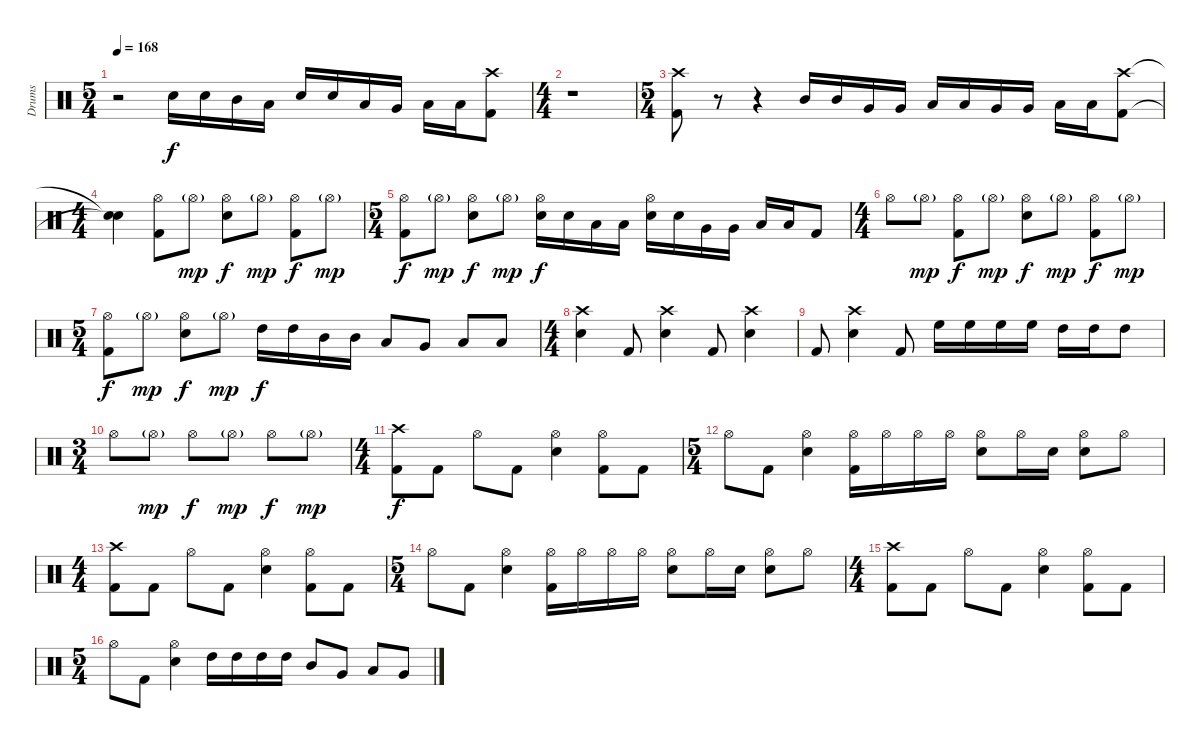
\track ("Drums" "Drums") {instrument percussion}
\staff {score}
\articulation defaults
\ts (5 4)
\tempo 168
\clef neutral
\ks c
r.2{dy f} "Electric Snare (hit)".16 "Electric Snare (hit)".16 "Mid Tom (hit)".16 "Low Tom (hit)".16 "Electric Snare (hit)".16 "Electric Snare (hit)".16 "Low Tom (hit)".16 "Very Low Tom (hit)".16 "Low Floor Tom (hit)".16 "Low Floor Tom (hit)".16 ("Crash high (hit)" "Kick (hit) 2").8 |
\ts (4 4)
r.1 |
\ts (5 4)
("Crash high (hit)" "Kick (hit) 2").8 r.8 r.4 "Mid Tom (hit)".16 "Mid Tom (hit)".16 "Very Low Tom (hit)".16 "Very Low Tom (hit)".16 "Low Tom (hit)".16 "Low Tom (hit)".16 "Very Low Tom (hit)".16 "Very Low Tom (hit)".16 "Low Floor Tom (hit)".16 "Low Floor Tom (hit)".16 ("Crash high (hit)" "Kick (hit) 2").8 |
\ts (4 4)
("Snare (hit)"{t} "Snare (hit)"{t}).4 ("Hi-Hat (open)" "Kick (hit) 2").8 "Hi-Hat (open)"{g}.8{dy mp} ("Hi-Hat (open)" "Electric Snare (hit)").8{dy f} "Hi-Hat (open)"{g}.8{dy mp} ("Hi-Hat (open)" "Kick (hit) 2").8{dy f} "Hi-Hat (open)"{g}.8{dy mp} |
\ts (5 4)
("Hi-Hat (open)" "Kick (hit) 2").8{dy f} "Hi-Hat (open)"{g}.8{dy mp} ("Hi-Hat (open)" "Electric Snare (hit)").8{dy f} "Hi-Hat (open)"{g}.8{dy mp} ("Hi-Hat (open)" "Electric Snare (hit)").16{dy f} "Electric Snare (hit)".16 "Low Tom (hit)".16 "Low Tom (hit)".16 ("Hi-Hat (open)" "Electric Snare (hit)").16 "Electric Snare (hit)".16 "Very Low Tom (hit)".16 "Very Low Tom (hit)".16 "Low Floor Tom (hit)".16 "Low Floor Tom (hit)".16 "Kick (hit) 2".8 |
\ts (4 4)
"Hi-Hat (open)".8 "Hi-Hat (open)"{g}.8{dy mp} ("Hi-Hat (open)" "Kick (hit) 2").8{dy f} "Hi-Hat (open)"{g}.8{dy mp} ("Hi-Hat (open)" "Electric Snare (hit)").8{dy f} "Hi-Hat (open)"{g}.8{dy mp} ("Hi-Hat (open)" "Kick (hit) 2").8{dy f} "Hi-Hat (open)"{g}.8{dy mp} |
\ts (5 4)
("Hi-Hat (open)" "Kick (hit) 2").8{dy f} "Hi-Hat (open)"{g}.8{dy mp} ("Hi-Hat (open)" "Electric Snare (hit)").8{dy f} "Hi-Hat (open)"{g}.8{dy mp} "High Tom (hit)".16{dy f} "High Tom (hit)".16 "Mid Tom (hit)".16 "Mid Tom (hit)".16 "Low Tom (hit)".8 "Very Low Tom (hit)".8 "Low Floor Tom (hit)".8 "Low Floor Tom (hit)".8 |
\ts (4 4)
("Crash high (hit)" "Electric Snare (hit)").4 "Kick (hit) 2".8 ("Crash high (hit)" "Electric Snare (hit)").4 "Kick (hit) 2".8 ("Crash high (hit)" "Electric Snare (hit)").4 |
"Kick (hit) 2".8 ("Crash high (hit)" "Electric Snare (hit)").4 "Kick (hit) 2".8 "High Floor Tom (hit)".16 "High Floor Tom (hit)".16 "High Floor Tom (hit)".16 "High Floor Tom (hit)".16 "High Tom (hit)".16 "High Tom (hit)".16 "High Tom (hit)".8 |
\ts (3 4)
"Hi-Hat (open)".8 "Hi-Hat (open)"{g}.8{dy mp} "Hi-Hat (open)".8{dy f} "Hi-Hat (open)"{g}.8{dy mp} "Hi-Hat (open)".8{dy f} "Hi-Hat (open)"{g}.8{dy mp} |
\ts (4 4)
("Crash high (hit)" "Kick (hit) 2").8{dy f} "Kick (hit) 2".8 "Hi-Hat (open)".8 "Kick (hit) 2".8 ("Hi-Hat (open)" "Electric Snare (hit)").4 ("Hi-Hat (open)" "Kick (hit) 2").8 "Kick (hit) 2".8 |
\ts (5 4)
"Hi-Hat (open)".8 "Kick (hit) 2".8 ("Hi-Hat (open)" "Electric Snare (hit)").4 ("Hi-Hat (open)" "Kick (hit) 2").16 "Hi-Hat (open)".16 "Hi-Hat (open)".16 "Hi-Hat (open)".16 ("Hi-Hat (open)" "Electric Snare (hit)").8 "Hi-Hat (open)".16 "Electric Snare (hit)".16 ("Hi-Hat (open)" "Electric Snare (hit)").8 "Hi-Hat (open)".8 |
\ts (4 4)
("Crash high (hit)" "Kick (hit) 2").8 "Kick (hit) 2".8 "Hi-Hat (open)".8 "Kick (hit) 2".8 ("Hi-Hat (open)" "Electric Snare (hit)").4 ("Hi-Hat (open)" "Kick (hit) 2").8 "Kick (hit) 2".8 |
\ts (5 4)
"Hi-Hat (open)".8 "Kick (hit) 2".8 ("Hi-Hat (open)" "Electric Snare (hit)").4 ("Hi-Hat (open)" "Kick (hit) 2").16 "Hi-Hat (open)".16 "Hi-Hat (open)".16 "Hi-Hat (open)".16 ("Hi-Hat (open)" "Electric Snare (hit)").8 "Hi-Hat (open)".16 "Electric Snare (hit)".16 ("Hi-Hat (open)" "Electric Snare (hit)").8 "Hi-Hat (open)".8 |
\ts (4 4)
("Crash high (hit)" "Kick (hit) 2").8 "Kick (hit) 2".8 "Hi-Hat (open)".8 "Kick (hit) 2".8 ("Hi-Hat (open)" "Electric Snare (hit)").4 ("Hi-Hat (open)" "Kick (hit) 2").8 "Kick (hit) 2".8 |
\ts (5 4)
"Hi-Hat (open)".8 "Kick (hit) 2".8 ("Hi-Hat (open)" "Electric Snare (hit)").4 "High Tom (hit)".16 "High Tom (hit)".16 "High Tom (hit)".16 "High Tom (hit)".16 "Mid Tom (hit)".8 "Very Low Tom (hit)".8 "Low Tom (hit)".8 "Very Low Tom (hit)".8
